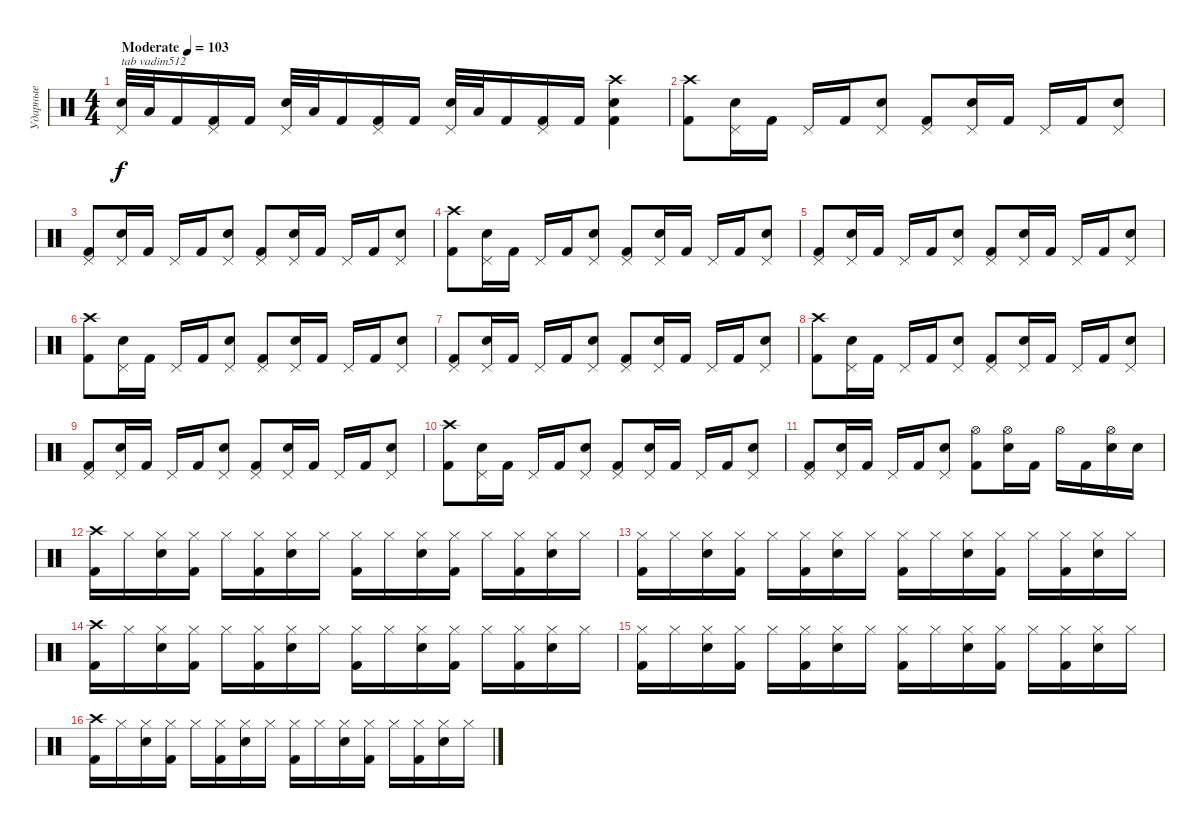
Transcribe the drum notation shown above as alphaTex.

\track ("Ударные" "Ударные") {instrument percussion}
\staff {score}
\articulation defaults
\ts (4 4)
\tempo (103 "Moderate")
\clef neutral
\ks c
("Pedal Hi-Hat (hit)" "Electric Snare (hit)").32{txt "tab vadim512" dy f} "Low Tom (hit)".32 "Kick (hit) 2".16 ("Pedal Hi-Hat (hit)" "Kick (hit) 2").16 "Kick (hit) 2".16 ("Pedal Hi-Hat (hit)" "Electric Snare (hit)").32 "Low Tom (hit)".32 "Kick (hit) 2".16 ("Pedal Hi-Hat (hit)" "Kick (hit) 2").16 "Kick (hit) 2".16 ("Pedal Hi-Hat (hit)" "Electric Snare (hit)").32 "Low Tom (hit)".32 "Kick (hit) 2".16 ("Pedal Hi-Hat (hit)" "Kick (hit) 2").16 "Kick (hit) 2".16 ("Crash high (hit)" "Electric Snare (hit)" "Kick (hit) 2").4 |
("Kick (hit) 2" "Crash high (hit)").8 ("Electric Snare (hit)" "Pedal Hi-Hat (hit)").16 "Kick (hit) 2".16 "Pedal Hi-Hat (hit)".16 "Kick (hit) 2".16 ("Electric Snare (hit)" "Pedal Hi-Hat (hit)").8 ("Kick (hit) 2" "Pedal Hi-Hat (hit)").8 ("Electric Snare (hit)" "Pedal Hi-Hat (hit)").16 "Kick (hit) 2".16 "Pedal Hi-Hat (hit)".16 "Kick (hit) 2".16 ("Electric Snare (hit)" "Pedal Hi-Hat (hit)").8 |
("Kick (hit) 2" "Pedal Hi-Hat (hit)").8 ("Electric Snare (hit)" "Pedal Hi-Hat (hit)").16 "Kick (hit) 2".16 "Pedal Hi-Hat (hit)".16 "Kick (hit) 2".16 ("Electric Snare (hit)" "Pedal Hi-Hat (hit)").8 ("Kick (hit) 2" "Pedal Hi-Hat (hit)").8 ("Electric Snare (hit)" "Pedal Hi-Hat (hit)").16 "Kick (hit) 2".16 "Pedal Hi-Hat (hit)".16 "Kick (hit) 2".16 ("Electric Snare (hit)" "Pedal Hi-Hat (hit)").8 |
("Kick (hit) 2" "Crash high (hit)").8 ("Electric Snare (hit)" "Pedal Hi-Hat (hit)").16 "Kick (hit) 2".16 "Pedal Hi-Hat (hit)".16 "Kick (hit) 2".16 ("Electric Snare (hit)" "Pedal Hi-Hat (hit)").8 ("Kick (hit) 2" "Pedal Hi-Hat (hit)").8 ("Electric Snare (hit)" "Pedal Hi-Hat (hit)").16 "Kick (hit) 2".16 "Pedal Hi-Hat (hit)".16 "Kick (hit) 2".16 ("Electric Snare (hit)" "Pedal Hi-Hat (hit)").8 |
("Kick (hit) 2" "Pedal Hi-Hat (hit)").8 ("Electric Snare (hit)" "Pedal Hi-Hat (hit)").16 "Kick (hit) 2".16 "Pedal Hi-Hat (hit)".16 "Kick (hit) 2".16 ("Electric Snare (hit)" "Pedal Hi-Hat (hit)").8 ("Kick (hit) 2" "Pedal Hi-Hat (hit)").8 ("Electric Snare (hit)" "Pedal Hi-Hat (hit)").16 "Kick (hit) 2".16 "Pedal Hi-Hat (hit)".16 "Kick (hit) 2".16 ("Electric Snare (hit)" "Pedal Hi-Hat (hit)").8 |
("Kick (hit) 2" "Crash high (hit)").8 ("Electric Snare (hit)" "Pedal Hi-Hat (hit)").16 "Kick (hit) 2".16 "Pedal Hi-Hat (hit)".16 "Kick (hit) 2".16 ("Electric Snare (hit)" "Pedal Hi-Hat (hit)").8 ("Kick (hit) 2" "Pedal Hi-Hat (hit)").8 ("Electric Snare (hit)" "Pedal Hi-Hat (hit)").16 "Kick (hit) 2".16 "Pedal Hi-Hat (hit)".16 "Kick (hit) 2".16 ("Electric Snare (hit)" "Pedal Hi-Hat (hit)").8 |
("Kick (hit) 2" "Pedal Hi-Hat (hit)").8 ("Electric Snare (hit)" "Pedal Hi-Hat (hit)").16 "Kick (hit) 2".16 "Pedal Hi-Hat (hit)".16 "Kick (hit) 2".16 ("Electric Snare (hit)" "Pedal Hi-Hat (hit)").8 ("Kick (hit) 2" "Pedal Hi-Hat (hit)").8 ("Electric Snare (hit)" "Pedal Hi-Hat (hit)").16 "Kick (hit) 2".16 "Pedal Hi-Hat (hit)".16 "Kick (hit) 2".16 ("Electric Snare (hit)" "Pedal Hi-Hat (hit)").8 |
("Kick (hit) 2" "Crash high (hit)").8 ("Electric Snare (hit)" "Pedal Hi-Hat (hit)").16 "Kick (hit) 2".16 "Pedal Hi-Hat (hit)".16 "Kick (hit) 2".16 ("Electric Snare (hit)" "Pedal Hi-Hat (hit)").8 ("Kick (hit) 2" "Pedal Hi-Hat (hit)").8 ("Electric Snare (hit)" "Pedal Hi-Hat (hit)").16 "Kick (hit) 2".16 "Pedal Hi-Hat (hit)".16 "Kick (hit) 2".16 ("Electric Snare (hit)" "Pedal Hi-Hat (hit)").8 |
("Kick (hit) 2" "Pedal Hi-Hat (hit)").8 ("Electric Snare (hit)" "Pedal Hi-Hat (hit)").16 "Kick (hit) 2".16 "Pedal Hi-Hat (hit)".16 "Kick (hit) 2".16 ("Electric Snare (hit)" "Pedal Hi-Hat (hit)").8 ("Kick (hit) 2" "Pedal Hi-Hat (hit)").8 ("Electric Snare (hit)" "Pedal Hi-Hat (hit)").16 "Kick (hit) 2".16 "Pedal Hi-Hat (hit)".16 "Kick (hit) 2".16 ("Electric Snare (hit)" "Pedal Hi-Hat (hit)").8 |
("Kick (hit) 2" "Crash high (hit)").8 ("Electric Snare (hit)" "Pedal Hi-Hat (hit)").16 "Kick (hit) 2".16 "Pedal Hi-Hat (hit)".16 "Kick (hit) 2".16 ("Electric Snare (hit)" "Pedal Hi-Hat (hit)").8 ("Kick (hit) 2" "Pedal Hi-Hat (hit)").8 ("Electric Snare (hit)" "Pedal Hi-Hat (hit)").16 "Kick (hit) 2".16 "Pedal Hi-Hat (hit)".16 "Kick (hit) 2".16 ("Electric Snare (hit)" "Pedal Hi-Hat (hit)").8 |
("Kick (hit) 2" "Pedal Hi-Hat (hit)").8 ("Electric Snare (hit)" "Pedal Hi-Hat (hit)").16 "Kick (hit) 2".16 "Pedal Hi-Hat (hit)".16 "Kick (hit) 2".16 ("Electric Snare (hit)" "Pedal Hi-Hat (hit)").8 ("Kick (hit) 2" "Hi-Hat (open)").8 ("Electric Snare (hit)" "Hi-Hat (open)").16 "Kick (hit) 2".16 "Hi-Hat (open)".16 "Kick (hit) 2".16 ("Electric Snare (hit)" "Hi-Hat (open)").16 "Electric Snare (hit)".16 |
("Kick (hit) 2" "Crash high (hit)").16 "Hi-Hat (closed)".16 ("Electric Snare (hit)" "Hi-Hat (closed)").16 ("Kick (hit) 2" "Hi-Hat (closed)").16 "Hi-Hat (closed)".16 ("Kick (hit) 2" "Hi-Hat (closed)").16 ("Electric Snare (hit)" "Hi-Hat (closed)").16 "Hi-Hat (closed)".16 ("Kick (hit) 2" "Hi-Hat (closed)").16 "Hi-Hat (closed)".16 ("Electric Snare (hit)" "Hi-Hat (closed)").16 ("Kick (hit) 2" "Hi-Hat (closed)").16 "Hi-Hat (closed)".16 ("Kick (hit) 2" "Hi-Hat (closed)").16 ("Electric Snare (hit)" "Hi-Hat (closed)").16 "Hi-Hat (closed)".16 |
("Kick (hit) 2" "Hi-Hat (closed)").16 "Hi-Hat (closed)".16 ("Electric Snare (hit)" "Hi-Hat (closed)").16 ("Kick (hit) 2" "Hi-Hat (closed)").16 "Hi-Hat (closed)".16 ("Kick (hit) 2" "Hi-Hat (closed)").16 ("Electric Snare (hit)" "Hi-Hat (closed)").16 "Hi-Hat (closed)".16 ("Kick (hit) 2" "Hi-Hat (closed)").16 "Hi-Hat (closed)".16 ("Electric Snare (hit)" "Hi-Hat (closed)").16 ("Kick (hit) 2" "Hi-Hat (closed)").16 "Hi-Hat (closed)".16 ("Kick (hit) 2" "Hi-Hat (closed)").16 ("Electric Snare (hit)" "Hi-Hat (closed)").16 "Hi-Hat (closed)".16 |
("Kick (hit) 2" "Crash high (hit)").16 "Hi-Hat (closed)".16 ("Electric Snare (hit)" "Hi-Hat (closed)").16 ("Kick (hit) 2" "Hi-Hat (closed)").16 "Hi-Hat (closed)".16 ("Kick (hit) 2" "Hi-Hat (closed)").16 ("Electric Snare (hit)" "Hi-Hat (closed)").16 "Hi-Hat (closed)".16 ("Kick (hit) 2" "Hi-Hat (closed)").16 "Hi-Hat (closed)".16 ("Electric Snare (hit)" "Hi-Hat (closed)").16 ("Kick (hit) 2" "Hi-Hat (closed)").16 "Hi-Hat (closed)".16 ("Kick (hit) 2" "Hi-Hat (closed)").16 ("Electric Snare (hit)" "Hi-Hat (closed)").16 "Hi-Hat (closed)".16 |
("Kick (hit) 2" "Hi-Hat (closed)").16 "Hi-Hat (closed)".16 ("Electric Snare (hit)" "Hi-Hat (closed)").16 ("Kick (hit) 2" "Hi-Hat (closed)").16 "Hi-Hat (closed)".16 ("Kick (hit) 2" "Hi-Hat (closed)").16 ("Electric Snare (hit)" "Hi-Hat (closed)").16 "Hi-Hat (closed)".16 ("Kick (hit) 2" "Hi-Hat (closed)").16 "Hi-Hat (closed)".16 ("Electric Snare (hit)" "Hi-Hat (closed)").16 ("Kick (hit) 2" "Hi-Hat (closed)").16 "Hi-Hat (closed)".16 ("Kick (hit) 2" "Hi-Hat (closed)").16 ("Electric Snare (hit)" "Hi-Hat (closed)").16 "Hi-Hat (closed)".16 |
("Kick (hit) 2" "Crash high (hit)").16 "Hi-Hat (closed)".16 ("Electric Snare (hit)" "Hi-Hat (closed)").16 ("Kick (hit) 2" "Hi-Hat (closed)").16 "Hi-Hat (closed)".16 ("Kick (hit) 2" "Hi-Hat (closed)").16 ("Electric Snare (hit)" "Hi-Hat (closed)").16 "Hi-Hat (closed)".16 ("Kick (hit) 2" "Hi-Hat (closed)").16 "Hi-Hat (closed)".16 ("Electric Snare (hit)" "Hi-Hat (closed)").16 ("Kick (hit) 2" "Hi-Hat (closed)").16 "Hi-Hat (closed)".16 ("Kick (hit) 2" "Hi-Hat (closed)").16 ("Electric Snare (hit)" "Hi-Hat (closed)").16 "Hi-Hat (closed)".16
